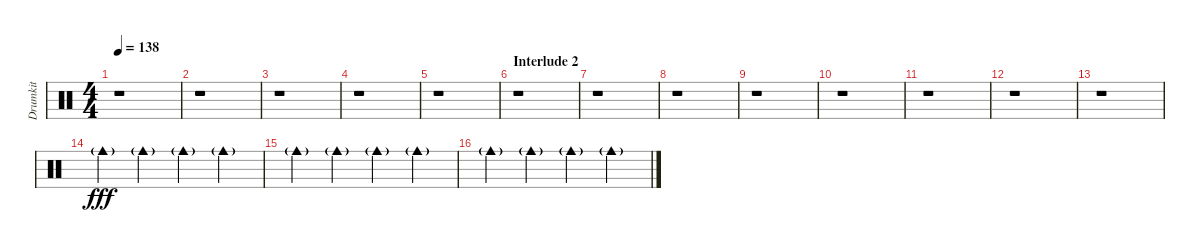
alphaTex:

\track ("Drumkit" "Drumkit") {instrument percussion}
\staff {score}
\articulation defaults
\ts (4 4)
\tempo 138
\clef neutral
\ks c
r.1{dy fff} |
r.1 |
r.1 |
r.1 |
r.1 |
\section ("" "Interlude 2")
r.1 |
r.1 |
r.1 |
r.1 |
r.1 |
r.1 |
r.1 |
r.1 |
"Cowbell medium (hit)"{g}.4 "Cowbell medium (hit)"{g}.4 "Cowbell medium (hit)"{g}.4 "Cowbell medium (hit)"{g}.4 |
"Cowbell medium (hit)"{g}.4 "Cowbell medium (hit)"{g}.4 "Cowbell medium (hit)"{g}.4 "Cowbell medium (hit)"{g}.4 |
"Cowbell medium (hit)"{g}.4 "Cowbell medium (hit)"{g}.4 "Cowbell medium (hit)"{g}.4 "Cowbell medium (hit)"{g}.4
